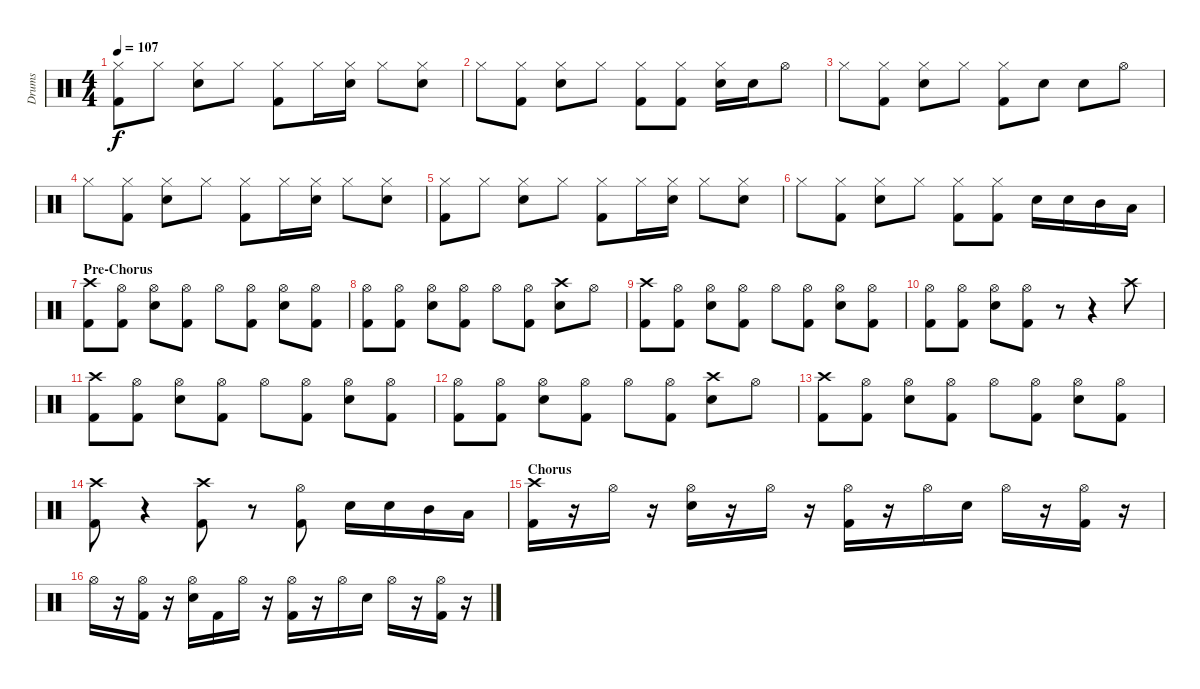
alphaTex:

\track ("Drums" "Drums") {instrument percussion}
\staff {score}
\articulation defaults
\ts (4 4)
\tempo 107
\clef neutral
\ks c
("Hi-Hat (closed)" "Kick (hit) 2").8{dy f} "Hi-Hat (closed)".8 ("Hi-Hat (closed)" "Electric Snare (hit)").8 "Hi-Hat (closed)".8 ("Hi-Hat (closed)" "Kick (hit) 2").8 "Hi-Hat (closed)".16 ("Hi-Hat (closed)" "Electric Snare (hit)").16 "Hi-Hat (closed)".8 ("Hi-Hat (closed)" "Electric Snare (hit)").8 |
"Hi-Hat (closed)".8 ("Hi-Hat (closed)" "Kick (hit) 2").8 ("Hi-Hat (closed)" "Electric Snare (hit)").8 "Hi-Hat (closed)".8 ("Hi-Hat (closed)" "Kick (hit) 2").8 ("Hi-Hat (closed)" "Kick (hit) 2").8 ("Hi-Hat (closed)" "Electric Snare (hit)").16 "Electric Snare (hit)".16 "Hi-Hat (open)".8 |
"Hi-Hat (closed)".8 ("Hi-Hat (closed)" "Kick (hit) 2").8 ("Hi-Hat (closed)" "Electric Snare (hit)").8 "Hi-Hat (closed)".8 ("Hi-Hat (closed)" "Kick (hit) 2").8 "Electric Snare (hit)".8 "Electric Snare (hit)".8 "Hi-Hat (open)".8 |
"Hi-Hat (closed)".8 ("Hi-Hat (closed)" "Kick (hit) 2").8 ("Hi-Hat (closed)" "Electric Snare (hit)").8 "Hi-Hat (closed)".8 ("Hi-Hat (closed)" "Kick (hit) 2").8 "Hi-Hat (closed)".16 ("Hi-Hat (closed)" "Electric Snare (hit)").16 "Hi-Hat (closed)".8 ("Hi-Hat (closed)" "Electric Snare (hit)").8 |
("Hi-Hat (closed)" "Kick (hit) 2").8 "Hi-Hat (closed)".8 ("Hi-Hat (closed)" "Electric Snare (hit)").8 "Hi-Hat (closed)".8 ("Hi-Hat (closed)" "Kick (hit) 2").8 "Hi-Hat (closed)".16 ("Hi-Hat (closed)" "Electric Snare (hit)").16 "Hi-Hat (closed)".8 ("Hi-Hat (closed)" "Electric Snare (hit)").8 |
"Hi-Hat (closed)".8 ("Hi-Hat (closed)" "Kick (hit) 2").8 ("Hi-Hat (closed)" "Electric Snare (hit)").8 "Hi-Hat (closed)".8 ("Hi-Hat (closed)" "Kick (hit) 2").8 ("Hi-Hat (closed)" "Kick (hit) 2").8 "Electric Snare (hit)".16 "Electric Snare (hit)".16 "Mid Tom (hit)".16 "Low Tom (hit)".16 |
\section ("" "Pre-Chorus")
("Crash high (hit)" "Kick (hit) 2").8 ("Hi-Hat (open)" "Kick (hit) 2").8 ("Hi-Hat (open)" "Electric Snare (hit)").8 ("Hi-Hat (open)" "Kick (hit) 2").8 "Hi-Hat (open)".8 ("Hi-Hat (open)" "Kick (hit) 2").8 ("Hi-Hat (open)" "Electric Snare (hit)").8 ("Hi-Hat (open)" "Kick (hit) 2").8 |
("Hi-Hat (open)" "Kick (hit) 2").8 ("Hi-Hat (open)" "Kick (hit) 2").8 ("Hi-Hat (open)" "Electric Snare (hit)").8 ("Hi-Hat (open)" "Kick (hit) 2").8 "Hi-Hat (open)".8 ("Hi-Hat (open)" "Kick (hit) 2").8 ("Crash high (hit)" "Electric Snare (hit)").8 "Hi-Hat (open)".8 |
("Crash high (hit)" "Kick (hit) 2").8 ("Hi-Hat (open)" "Kick (hit) 2").8 ("Hi-Hat (open)" "Electric Snare (hit)").8 ("Hi-Hat (open)" "Kick (hit) 2").8 "Hi-Hat (open)".8 ("Hi-Hat (open)" "Kick (hit) 2").8 ("Hi-Hat (open)" "Electric Snare (hit)").8 ("Hi-Hat (open)" "Kick (hit) 2").8 |
("Hi-Hat (open)" "Kick (hit) 2").8 ("Hi-Hat (open)" "Kick (hit) 2").8 ("Hi-Hat (open)" "Electric Snare (hit)").8 ("Hi-Hat (open)" "Kick (hit) 2").8 r.8 r.4 "Crash high (hit)".8 |
("Crash high (hit)" "Kick (hit) 2").8 ("Hi-Hat (open)" "Kick (hit) 2").8 ("Hi-Hat (open)" "Electric Snare (hit)").8 ("Hi-Hat (open)" "Kick (hit) 2").8 "Hi-Hat (open)".8 ("Hi-Hat (open)" "Kick (hit) 2").8 ("Hi-Hat (open)" "Electric Snare (hit)").8 ("Hi-Hat (open)" "Kick (hit) 2").8 |
("Hi-Hat (open)" "Kick (hit) 2").8 ("Hi-Hat (open)" "Kick (hit) 2").8 ("Hi-Hat (open)" "Electric Snare (hit)").8 ("Hi-Hat (open)" "Kick (hit) 2").8 "Hi-Hat (open)".8 ("Hi-Hat (open)" "Kick (hit) 2").8 ("Crash high (hit)" "Electric Snare (hit)").8 "Hi-Hat (open)".8 |
("Crash high (hit)" "Kick (hit) 2").8 ("Hi-Hat (open)" "Kick (hit) 2").8 ("Hi-Hat (open)" "Electric Snare (hit)").8 ("Hi-Hat (open)" "Kick (hit) 2").8 "Hi-Hat (open)".8 ("Hi-Hat (open)" "Kick (hit) 2").8 ("Hi-Hat (open)" "Electric Snare (hit)").8 ("Hi-Hat (open)" "Kick (hit) 2").8 |
("Crash high (hit)" "Kick (hit) 2").8 r.4 ("Crash high (hit)" "Kick (hit) 2").8 r.8 ("Hi-Hat (open)" "Kick (hit) 2").8 "Electric Snare (hit)".16 "Electric Snare (hit)".16 "Mid Tom (hit)".16 "Low Tom (hit)".16 |
\section ("" "Chorus")
("Crash high (hit)" "Kick (hit) 2").16 r.16 "Hi-Hat (open)".16 r.16 ("Hi-Hat (open)" "Electric Snare (hit)").16 r.16 "Hi-Hat (open)".16 r.16 ("Hi-Hat (open)" "Kick (hit) 2").16 r.16 "Hi-Hat (open)".16 "Electric Snare (hit)".16 "Hi-Hat (open)".16 r.16 ("Hi-Hat (open)" "Kick (hit) 2").16 r.16 |
"Hi-Hat (open)".16 r.16 ("Hi-Hat (open)" "Kick (hit) 2").16 r.16 ("Hi-Hat (open)" "Electric Snare (hit)").16 "Kick (hit) 2".16 "Hi-Hat (open)".16 r.16 ("Hi-Hat (open)" "Kick (hit) 2").16 r.16 "Hi-Hat (open)".16 "Electric Snare (hit)".16 "Hi-Hat (open)".16 r.16 ("Hi-Hat (open)" "Kick (hit) 2").16 r.16
